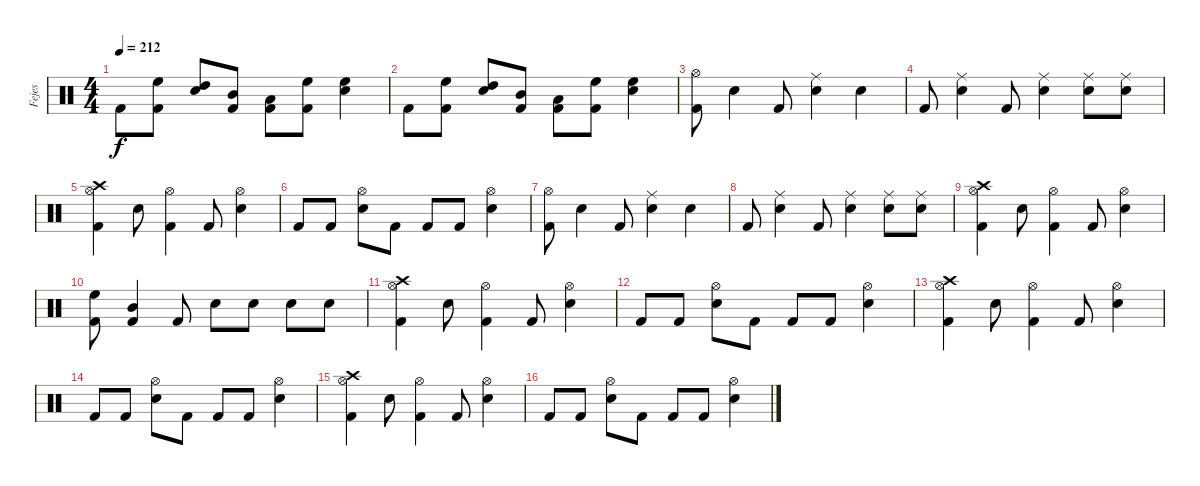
\track ("Fejes" "Fejes") {instrument percussion}
\staff {score}
\articulation defaults
\ts (4 4)
\tempo 212
\clef neutral
\ks c "Kick (hit) 2".8{dy f}
("High Floor Tom (hit)" "Kick (hit) 2").8 ("High Tom (hit)" "Snare (hit) 2").8 ("Mid Tom (hit)" "Kick (hit) 2").8 ("Low Tom (hit)" "Kick (hit) 2").8 ("High Floor Tom (hit)" "Kick (hit) 2").8 ("High Floor Tom (hit)" "Snare (hit) 2").4 |
"Kick (hit) 2".8 ("High Floor Tom (hit)" "Kick (hit) 2").8 ("High Tom (hit)" "Snare (hit) 2").8 ("Mid Tom (hit)" "Kick (hit) 2").8 ("Low Tom (hit)" "Kick (hit) 2").8 ("High Floor Tom (hit)" "Kick (hit) 2").8 ("High Floor Tom (hit)" "Snare (hit) 2").4 |
("Hi-Hat (open)" "Kick (hit) 2").8 "Snare (hit) 2".4 "Kick (hit) 2".8 ("Ride (middle)" "Snare (hit) 2").4 "Snare (hit) 2".4 |
"Kick (hit) 2".8 ("Ride (middle)" "Snare (hit) 2").4 "Kick (hit) 2".8 ("Ride (middle)" "Snare (hit) 2").4 ("Ride (middle)" "Snare (hit) 2").8 ("Ride (middle)" "Snare (hit) 2").8 |
("Crash high (hit)" "Hi-Hat (open)" "Kick (hit) 2").4 "Snare (hit) 2".8 ("Hi-Hat (open)" "Kick (hit) 2").4 "Kick (hit) 2".8 ("Hi-Hat (open)" "Snare (hit) 2").4 |
"Kick (hit) 2".8 "Kick (hit) 2".8 ("Hi-Hat (open)" "Snare (hit) 2").8 "Kick (hit) 2".8 "Kick (hit) 2".8 "Kick (hit) 2".8 ("Hi-Hat (open)" "Snare (hit) 2").4 |
("Hi-Hat (open)" "Kick (hit) 2").8 "Snare (hit) 2".4 "Kick (hit) 2".8 ("Ride (middle)" "Snare (hit) 2").4 "Snare (hit) 2".4 |
"Kick (hit) 2".8 ("Ride (middle)" "Snare (hit) 2").4 "Kick (hit) 2".8 ("Ride (middle)" "Snare (hit) 2").4 ("Ride (middle)" "Snare (hit) 2").8 ("Ride (middle)" "Snare (hit) 2").8 |
("Crash high (hit)" "Hi-Hat (open)" "Kick (hit) 2").4 "Snare (hit) 2".8 ("Hi-Hat (open)" "Kick (hit) 2").4 "Kick (hit) 2".8 ("Hi-Hat (open)" "Snare (hit) 2").4 |
("High Floor Tom (hit)" "Kick (hit) 2").8 ("Mid Tom (hit)" "Kick (hit) 2").4 "Kick (hit) 2".8 "Snare (hit) 2".8 "Snare (hit) 2".8 "Snare (hit) 2".8 "Snare (hit) 2".8 |
("Crash high (hit)" "Hi-Hat (open)" "Kick (hit) 2").4 "Snare (hit) 2".8 ("Hi-Hat (open)" "Kick (hit) 2").4 "Kick (hit) 2".8 ("Hi-Hat (open)" "Snare (hit) 2").4 |
"Kick (hit) 2".8 "Kick (hit) 2".8 ("Hi-Hat (open)" "Snare (hit) 2").8 "Kick (hit) 2".8 "Kick (hit) 2".8 "Kick (hit) 2".8 ("Hi-Hat (open)" "Snare (hit) 2").4 |
("Crash high (hit)" "Hi-Hat (open)" "Kick (hit) 2").4 "Snare (hit) 2".8 ("Hi-Hat (open)" "Kick (hit) 2").4 "Kick (hit) 2".8 ("Hi-Hat (open)" "Snare (hit) 2").4 |
"Kick (hit) 2".8 "Kick (hit) 2".8 ("Hi-Hat (open)" "Snare (hit) 2").8 "Kick (hit) 2".8 "Kick (hit) 2".8 "Kick (hit) 2".8 ("Hi-Hat (open)" "Snare (hit) 2").4 |
("Crash high (hit)" "Hi-Hat (open)" "Kick (hit) 2").4 "Snare (hit) 2".8 ("Hi-Hat (open)" "Kick (hit) 2").4 "Kick (hit) 2".8 ("Hi-Hat (open)" "Snare (hit) 2").4 |
"Kick (hit) 2".8 "Kick (hit) 2".8 ("Hi-Hat (open)" "Snare (hit) 2").8 "Kick (hit) 2".8 "Kick (hit) 2".8 "Kick (hit) 2".8 ("Hi-Hat (open)" "Snare (hit) 2").4
